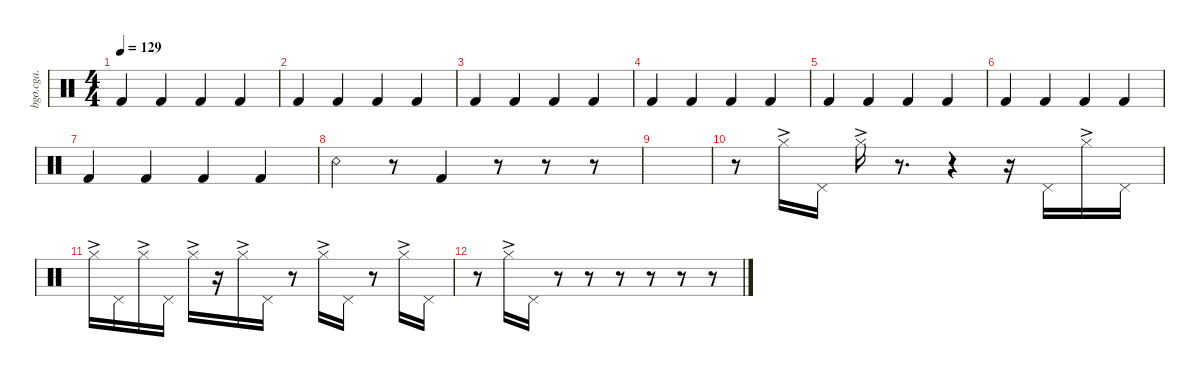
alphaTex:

\defaultSystemsLayout 4
\hideDynamics
\bracketExtendMode nobrackets
\otherSystemsTrackNameOrientation horizontal
\track ("Heiko's percussion" "bgo.cga.") {instrument percussion}
\staff {score}
\articulation defaults
\ts (4 4)
\tempo 129
\clef neutral
\ks c "Kick (hit) 2".4{dy mf} "Kick (hit) 2".4 "Kick (hit) 2".4 "Kick (hit) 2".4
|
"Kick (hit) 2".4 "Kick (hit) 2".4 "Kick (hit) 2".4 "Kick (hit) 2".4 |
"Kick (hit) 2".4 "Kick (hit) 2".4 "Kick (hit) 2".4 "Kick (hit) 2".4 |
"Kick (hit) 2".4 "Kick (hit) 2".4 "Kick (hit) 2".4 "Kick (hit) 2".4 |
"Kick (hit) 2".4 "Kick (hit) 2".4 "Kick (hit) 2".4 "Kick (hit) 2".4 |
"Kick (hit) 2".4 "Kick (hit) 2".4 "Kick (hit) 2".4 "Kick (hit) 2".4 |
"Kick (hit) 2".4 "Kick (hit) 2".4 "Kick (hit) 2".4 "Kick (hit) 2".4 |
"Snare (rim shot)".4 r.8 "Kick (hit) 2".4 r.8 r.8 r.8 |
|
r.8 "Hi-Hat (closed)"{ac}.16{dy mp} "Pedal Hi-Hat (hit)".16 "Hi-Hat (closed)"{ac}.16 r.8{d} r.4 r.16 "Pedal Hi-Hat (hit)".16 "Hi-Hat (closed)"{ac}.16 "Pedal Hi-Hat (hit)".16 |
"Hi-Hat (closed)"{ac}.16 "Pedal Hi-Hat (hit)".16 "Hi-Hat (closed)"{ac}.16 "Pedal Hi-Hat (hit)".16 "Hi-Hat (closed)"{ac}.16 r.16 "Hi-Hat (closed)"{ac}.16 "Pedal Hi-Hat (hit)".16 r.8 "Hi-Hat (closed)"{ac}.16 "Pedal Hi-Hat (hit)".16 r.8 "Hi-Hat (closed)"{ac}.16 "Pedal Hi-Hat (hit)".16 |
r.8 "Hi-Hat (closed)"{ac}.16 "Pedal Hi-Hat (hit)".16 r.8 r.8 r.8 r.8 r.8 r.8
